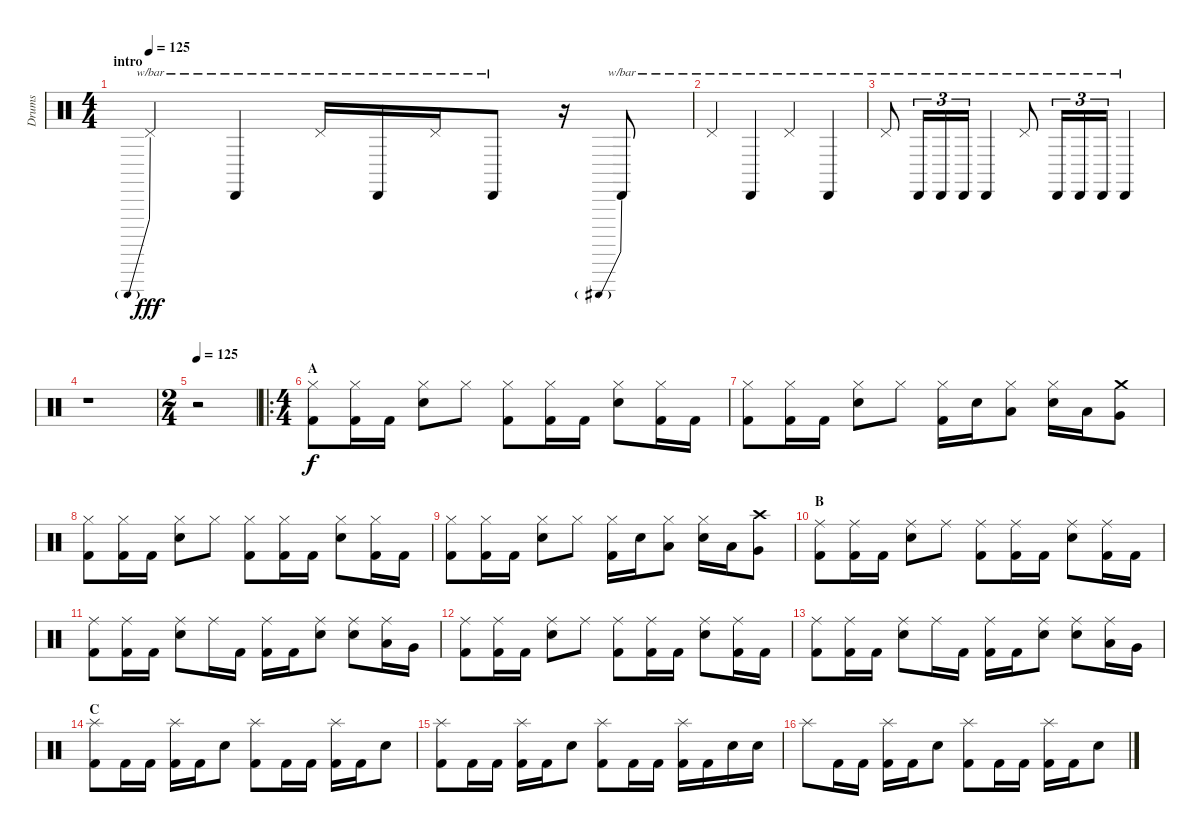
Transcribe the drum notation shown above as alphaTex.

\track ("Drums" "Drums") {instrument percussion}
\staff {score}
\articulation defaults
\ts (4 4)
\section ("" "intro")
\tempo 125
\tempo 152
\tempo 125
\clef neutral
\ks c "Pedal Hi-Hat (hit)".4{tbe (predive default 0 -4 60 -4) dy fff volume 10} "Cabasa (hit)".4{tbe (hold default 0 4 60 4)} "Pedal Hi-Hat (hit)".16{tbe (hold default 0 -4 60 -4)} "Cabasa (hit)".16{tbe (hold default 0 4 60 4)} "Pedal Hi-Hat (hit)".16{tbe (hold default 0 -4 60 -4)} "Cabasa (hit)".8{tbe (hold default 0 4 60 4)}
r.16 "Cabasa (hit)".8{tbe (predive default 0 4 60 4)} |
"Pedal Hi-Hat (hit)".4{tbe (hold default 0 -4 60 -4)} "Cabasa (hit)".4{tbe (hold default 0 4 60 4)} "Pedal Hi-Hat (hit)".4{tbe (hold default 0 -4 60 -4)} "Cabasa (hit)".4{tbe (hold default 0 4 60 4)} |
"Pedal Hi-Hat (hit)".8{tbe (hold default 0 -4 60 -4)} "Cabasa (hit)".16{tu (3 2) tbe (hold default 0 4 60 4)} "Cabasa (hit)".16{tu (3 2) tbe (hold default 0 4 60 4)} "Cabasa (hit)".16{tu (3 2) tbe (hold default 0 4 60 4)} "Cabasa (hit)".4{tbe (hold default 0 4 60 4)} "Pedal Hi-Hat (hit)".8{tbe (hold default 0 -4 60 -4)} "Cabasa (hit)".16{tu (3 2) tbe (hold default 0 4 60 4)} "Cabasa (hit)".16{tu (3 2) tbe (hold default 0 4 60 4)} "Cabasa (hit)".16{tu (3 2) tbe (hold default 0 4 60 4)} "Cabasa (hit)".4{tbe (hold default 0 4 60 4)} |
r.1 |
\ts (2 4)
\tempo 125
r.2{volume 13} |
\ro
\ts (4 4)
\section ("" "A")
("Hi-Hat (closed)" "Kick (hit) 2").8{dy f} ("Hi-Hat (closed)" "Kick (hit) 2").16 "Kick (hit) 2".16 ("Hi-Hat (closed)" "Snare (hit) 2").8 "Hi-Hat (closed)".8 ("Hi-Hat (closed)" "Kick (hit) 2").8 ("Hi-Hat (closed)" "Kick (hit) 2").16 "Kick (hit) 2".16 ("Hi-Hat (closed)" "Snare (hit) 2").8 ("Hi-Hat (closed)" "Kick (hit) 2").16 "Kick (hit) 2".16 |
("Hi-Hat (closed)" "Kick (hit) 2").8 ("Hi-Hat (closed)" "Kick (hit) 2").16 "Kick (hit) 2".16 ("Hi-Hat (closed)" "Snare (hit) 2").8 "Hi-Hat (closed)".8 ("Hi-Hat (closed)" "Kick (hit) 2").16 "Snare (hit) 2".16 ("Hi-Hat (closed)" "Low Tom (hit)").8 ("Hi-Hat (closed)" "Snare (hit) 2").16 "Low Tom (hit)".16 ("Crash medium (hit)" "Very Low Tom (hit)").8 |
("Hi-Hat (closed)" "Kick (hit) 2").8 ("Hi-Hat (closed)" "Kick (hit) 2").16 "Kick (hit) 2".16 ("Hi-Hat (closed)" "Snare (hit) 2").8 "Hi-Hat (closed)".8 ("Hi-Hat (closed)" "Kick (hit) 2").8 ("Hi-Hat (closed)" "Kick (hit) 2").16 "Kick (hit) 2".16 ("Hi-Hat (closed)" "Snare (hit) 2").8 ("Hi-Hat (closed)" "Kick (hit) 2").16 "Kick (hit) 2".16 |
("Hi-Hat (closed)" "Kick (hit) 2").8 ("Hi-Hat (closed)" "Kick (hit) 2").16 "Kick (hit) 2".16 ("Hi-Hat (closed)" "Snare (hit) 2").8 "Hi-Hat (closed)".8 ("Hi-Hat (closed)" "Kick (hit) 2").16 "Snare (hit) 2".16 ("Hi-Hat (closed)" "Low Tom (hit)").8 ("Hi-Hat (closed)" "Snare (hit) 2").16 "Low Tom (hit)".16 ("Crash high (hit)" "Very Low Tom (hit)").8 |
\section ("" "B")
("Ride (middle)" "Kick (hit) 2").8 ("Ride (middle)" "Kick (hit) 2").16 "Kick (hit) 2".16 ("Ride (middle)" "Snare (hit) 2").8 "Ride (middle)".8 ("Ride (middle)" "Kick (hit) 2").8 ("Ride (middle)" "Kick (hit) 2").16 "Kick (hit) 2".16 ("Ride (middle)" "Snare (hit) 2").8 ("Ride (middle)" "Kick (hit) 2").16 "Kick (hit) 2".16 |
("Ride (middle)" "Kick (hit) 2").8 ("Ride (middle)" "Kick (hit) 2").16 "Kick (hit) 2".16 ("Ride (middle)" "Snare (hit) 2").8 "Ride (middle)".16 "Kick (hit) 2".16 ("Ride (middle)" "Kick (hit) 2").16 "Kick (hit) 2".16 ("Ride (middle)" "Snare (hit) 2").8 ("Ride (middle)" "Snare (hit) 2").8 ("Ride (middle)" "Low Tom (hit)").16 "Very Low Tom (hit)".16 |
("Ride (middle)" "Kick (hit) 2").8 ("Ride (middle)" "Kick (hit) 2").16 "Kick (hit) 2".16 ("Ride (middle)" "Snare (hit) 2").8 "Ride (middle)".8 ("Ride (middle)" "Kick (hit) 2").8 ("Ride (middle)" "Kick (hit) 2").16 "Kick (hit) 2".16 ("Ride (middle)" "Snare (hit) 2").8 ("Ride (middle)" "Kick (hit) 2").16 "Kick (hit) 2".16 |
("Ride (middle)" "Kick (hit) 2").8 ("Ride (middle)" "Kick (hit) 2").16 "Kick (hit) 2".16 ("Ride (middle)" "Snare (hit) 2").8 "Ride (middle)".16 "Kick (hit) 2".16 ("Ride (middle)" "Kick (hit) 2").16 "Kick (hit) 2".16 ("Ride (middle)" "Snare (hit) 2").8 ("Ride (middle)" "Snare (hit) 2").8 ("Ride (middle)" "Low Tom (hit)").16 "Very Low Tom (hit)".16 |
\section ("" "C")
("Splash (hit)" "Kick (hit) 2").8 "Kick (hit) 2".16 "Kick (hit) 2".16 ("Splash (hit)" "Kick (hit) 2").16 "Kick (hit) 2".16 "Snare (hit) 2".8 ("Splash (hit)" "Kick (hit) 2").8 "Kick (hit) 2".16 "Kick (hit) 2".16 ("Splash (hit)" "Kick (hit) 2").16 "Kick (hit) 2".16 "Snare (hit) 2".8 |
("Splash (hit)" "Kick (hit) 2").8 "Kick (hit) 2".16 "Kick (hit) 2".16 ("Splash (hit)" "Kick (hit) 2").16 "Kick (hit) 2".16 "Snare (hit) 2".8 ("Splash (hit)" "Kick (hit) 2").8 "Kick (hit) 2".16 "Kick (hit) 2".16 ("Splash (hit)" "Kick (hit) 2").16 "Kick (hit) 2".16 "Snare (hit) 2".16 "Snare (hit) 2".16 |
"Splash (hit)".8 "Kick (hit) 2".16 "Kick (hit) 2".16 ("Splash (hit)" "Kick (hit) 2").16 "Kick (hit) 2".16 "Snare (hit) 2".8 ("Splash (hit)" "Kick (hit) 2").8 "Kick (hit) 2".16 "Kick (hit) 2".16 ("Splash (hit)" "Kick (hit) 2").16 "Kick (hit) 2".16 "Snare (hit) 2".8
